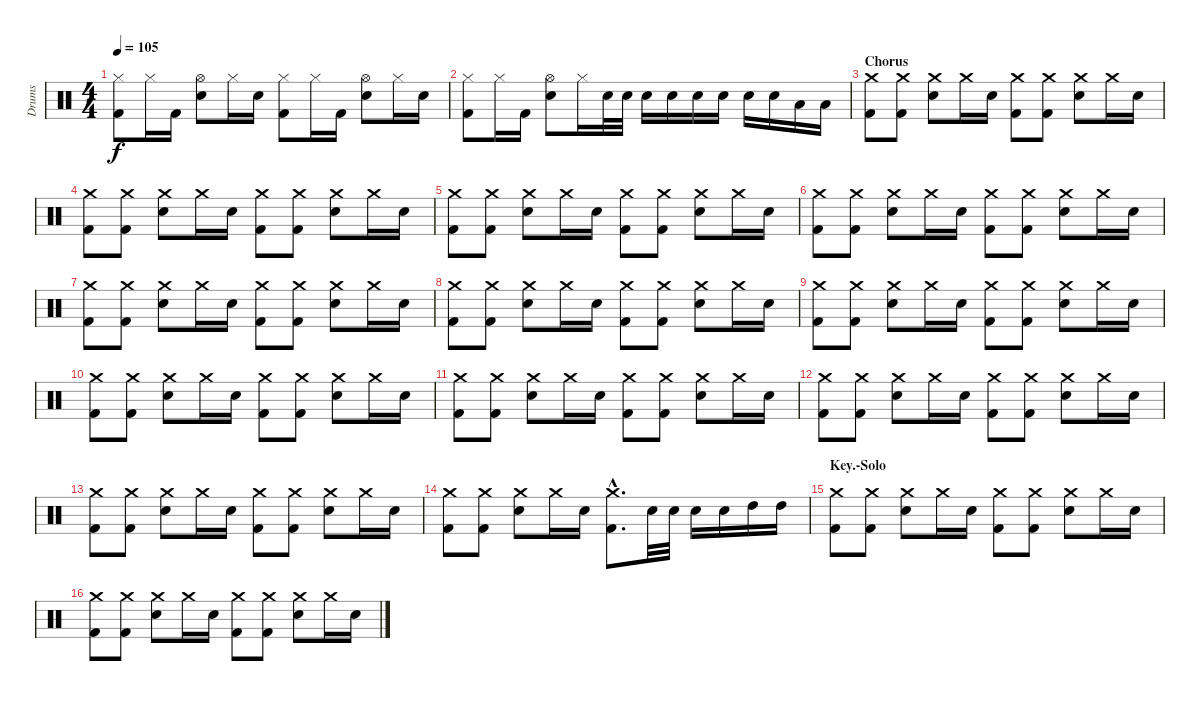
\track ("Drums" "Drums") {instrument percussion}
\staff {score}
\articulation defaults
\ts (4 4)
\tempo 105
\clef neutral
\ks c
("Kick (hit) 2" "Hi-Hat (closed)").8{dy f} "Hi-Hat (closed)".16 "Kick (hit) 2".16 ("Hi-Hat (open)" "Snare (hit) 2").8 "Hi-Hat (closed)".16 "Snare (hit) 2".16 ("Hi-Hat (closed)" "Kick (hit) 2").8 "Hi-Hat (closed)".16 "Kick (hit) 2".16 ("Hi-Hat (open)" "Snare (hit) 2").8 "Hi-Hat (closed)".16 "Snare (hit) 2".16 |
("Kick (hit) 2" "Hi-Hat (closed)").8 "Hi-Hat (closed)".16 "Kick (hit) 2".16 ("Hi-Hat (open)" "Snare (hit) 2").8 "Hi-Hat (closed)".16 "Snare (hit) 2".32 "Snare (hit) 2".32 "Snare (hit) 2".16 "Snare (hit) 2".16 "Snare (hit) 2".16 "Snare (hit) 2".16 "Snare (hit) 2".16 "Snare (hit) 2".16 "Low Tom (hit)".16 "Low Tom (hit)".16 |
\section ("" "Chorus")
("Kick (hit) 2" "Crash medium (hit)").8 ("Crash medium (hit)" "Kick (hit) 2").8 ("Crash medium (hit)" "Snare (hit) 2").8 "Crash medium (hit)".16 "Snare (hit) 2".16 ("Crash medium (hit)" "Kick (hit) 2").8 ("Crash medium (hit)" "Kick (hit) 2").8 ("Crash medium (hit)" "Snare (hit) 2").8 "Crash medium (hit)".16 "Snare (hit) 2".16 |
("Kick (hit) 2" "Crash medium (hit)").8 ("Crash medium (hit)" "Kick (hit) 2").8 ("Crash medium (hit)" "Snare (hit) 2").8 "Crash medium (hit)".16 "Snare (hit) 2".16 ("Crash medium (hit)" "Kick (hit) 2").8 ("Crash medium (hit)" "Kick (hit) 2").8 ("Crash medium (hit)" "Snare (hit) 2").8 "Crash medium (hit)".16 "Snare (hit) 2".16 |
("Kick (hit) 2" "Crash medium (hit)").8 ("Crash medium (hit)" "Kick (hit) 2").8 ("Crash medium (hit)" "Snare (hit) 2").8 "Crash medium (hit)".16 "Snare (hit) 2".16 ("Crash medium (hit)" "Kick (hit) 2").8 ("Crash medium (hit)" "Kick (hit) 2").8 ("Crash medium (hit)" "Snare (hit) 2").8 "Crash medium (hit)".16 "Snare (hit) 2".16 |
("Kick (hit) 2" "Crash medium (hit)").8 ("Crash medium (hit)" "Kick (hit) 2").8 ("Crash medium (hit)" "Snare (hit) 2").8 "Crash medium (hit)".16 "Snare (hit) 2".16 ("Crash medium (hit)" "Kick (hit) 2").8 ("Crash medium (hit)" "Kick (hit) 2").8 ("Crash medium (hit)" "Snare (hit) 2").8 "Crash medium (hit)".16 "Snare (hit) 2".16 |
("Kick (hit) 2" "Crash medium (hit)").8 ("Crash medium (hit)" "Kick (hit) 2").8 ("Crash medium (hit)" "Snare (hit) 2").8 "Crash medium (hit)".16 "Snare (hit) 2".16 ("Crash medium (hit)" "Kick (hit) 2").8 ("Crash medium (hit)" "Kick (hit) 2").8 ("Crash medium (hit)" "Snare (hit) 2").8 "Crash medium (hit)".16 "Snare (hit) 2".16 |
("Kick (hit) 2" "Crash medium (hit)").8 ("Crash medium (hit)" "Kick (hit) 2").8 ("Crash medium (hit)" "Snare (hit) 2").8 "Crash medium (hit)".16 "Snare (hit) 2".16 ("Crash medium (hit)" "Kick (hit) 2").8 ("Crash medium (hit)" "Kick (hit) 2").8 ("Crash medium (hit)" "Snare (hit) 2").8 "Crash medium (hit)".16 "Snare (hit) 2".16 |
("Kick (hit) 2" "Crash medium (hit)").8 ("Crash medium (hit)" "Kick (hit) 2").8 ("Crash medium (hit)" "Snare (hit) 2").8 "Crash medium (hit)".16 "Snare (hit) 2".16 ("Crash medium (hit)" "Kick (hit) 2").8 ("Crash medium (hit)" "Kick (hit) 2").8 ("Crash medium (hit)" "Snare (hit) 2").8 "Crash medium (hit)".16 "Snare (hit) 2".16 |
("Kick (hit) 2" "Crash medium (hit)").8 ("Crash medium (hit)" "Kick (hit) 2").8 ("Crash medium (hit)" "Snare (hit) 2").8 "Crash medium (hit)".16 "Snare (hit) 2".16 ("Crash medium (hit)" "Kick (hit) 2").8 ("Crash medium (hit)" "Kick (hit) 2").8 ("Crash medium (hit)" "Snare (hit) 2").8 "Crash medium (hit)".16 "Snare (hit) 2".16 |
("Kick (hit) 2" "Crash medium (hit)").8 ("Crash medium (hit)" "Kick (hit) 2").8 ("Crash medium (hit)" "Snare (hit) 2").8 "Crash medium (hit)".16 "Snare (hit) 2".16 ("Crash medium (hit)" "Kick (hit) 2").8 ("Crash medium (hit)" "Kick (hit) 2").8 ("Crash medium (hit)" "Snare (hit) 2").8 "Crash medium (hit)".16 "Snare (hit) 2".16 |
("Kick (hit) 2" "Crash medium (hit)").8 ("Crash medium (hit)" "Kick (hit) 2").8 ("Crash medium (hit)" "Snare (hit) 2").8 "Crash medium (hit)".16 "Snare (hit) 2".16 ("Crash medium (hit)" "Kick (hit) 2").8 ("Crash medium (hit)" "Kick (hit) 2").8 ("Crash medium (hit)" "Snare (hit) 2").8 "Crash medium (hit)".16 "Snare (hit) 2".16 |
("Kick (hit) 2" "Crash medium (hit)").8 ("Crash medium (hit)" "Kick (hit) 2").8 ("Crash medium (hit)" "Snare (hit) 2").8 "Crash medium (hit)".16 "Snare (hit) 2".16 ("Crash medium (hit)" "Kick (hit) 2").8 ("Crash medium (hit)" "Kick (hit) 2").8 ("Crash medium (hit)" "Snare (hit) 2").8 "Crash medium (hit)".16 "Snare (hit) 2".16 |
("Kick (hit) 2" "Crash medium (hit)").8 ("Crash medium (hit)" "Kick (hit) 2").8 ("Crash medium (hit)" "Snare (hit) 2").8 "Crash medium (hit)".16 "Snare (hit) 2".16 ("Crash medium (hit)"{hac} "Kick (hit) 2"{hac}).8{d} "Snare (hit) 2".32 "Snare (hit) 2".32 "Snare (hit) 2".16 "Snare (hit) 2".16 "High Tom (hit)".16 "High Tom (hit)".16 |
\section ("" "Key.-Solo")
("Kick (hit) 2" "Crash medium (hit)").8 ("Crash medium (hit)" "Kick (hit) 2").8 ("Crash medium (hit)" "Snare (hit) 2").8 "Crash medium (hit)".16 "Snare (hit) 2".16 ("Crash medium (hit)" "Kick (hit) 2").8 ("Crash medium (hit)" "Kick (hit) 2").8 ("Crash medium (hit)" "Snare (hit) 2").8 "Crash medium (hit)".16 "Snare (hit) 2".16 |
("Kick (hit) 2" "Crash medium (hit)").8 ("Crash medium (hit)" "Kick (hit) 2").8 ("Crash medium (hit)" "Snare (hit) 2").8 "Crash medium (hit)".16 "Snare (hit) 2".16 ("Crash medium (hit)" "Kick (hit) 2").8 ("Crash medium (hit)" "Kick (hit) 2").8 ("Crash medium (hit)" "Snare (hit) 2").8 "Crash medium (hit)".16 "Snare (hit) 2".16
